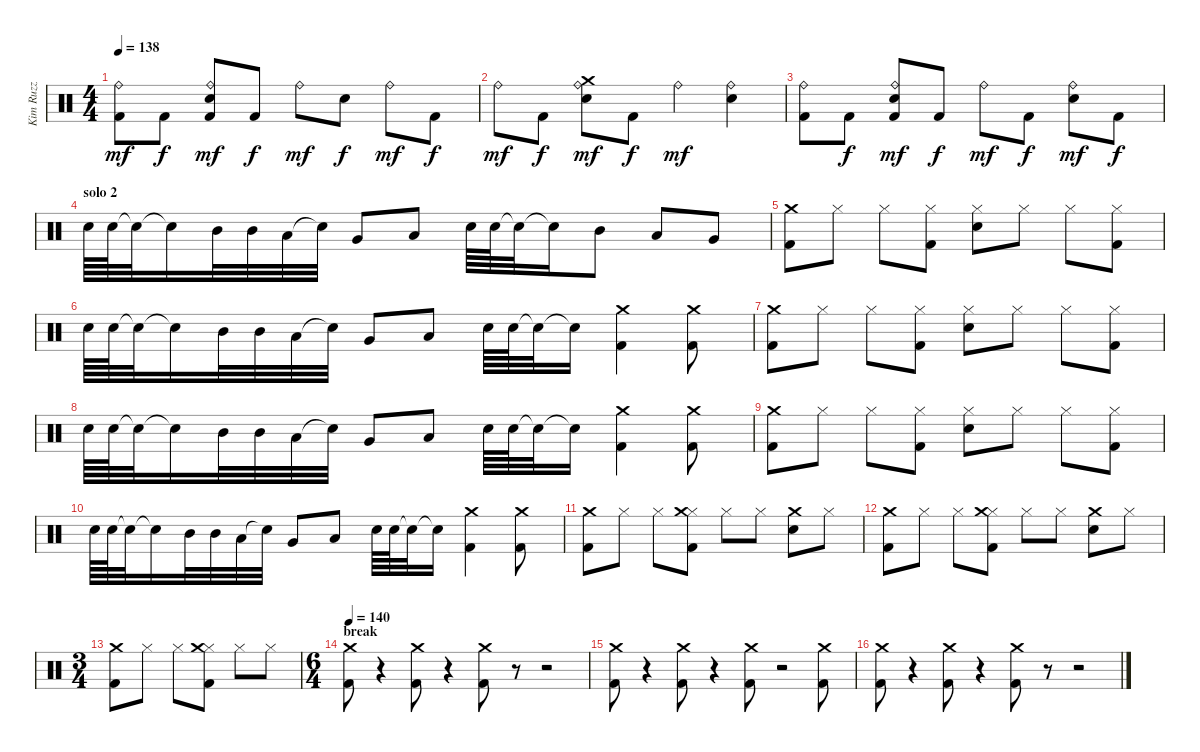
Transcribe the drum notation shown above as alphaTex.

\track ("Kim Ruzz" "Kim Ruzz") {instrument percussion}
\staff {score}
\articulation defaults
\ts (4 4)
\tempo 138
\clef neutral
\ks c
("Kick (hit) 2" "Ride (bell)").8{dy mf} "Kick (hit) 2".8{dy f} ("Kick (hit) 2" "Ride (bell)" "Snare (hit) 2").8{dy mf} "Kick (hit) 2".8{dy f} "Ride (bell)".8{dy mf} "Snare (hit) 2".8{dy f} "Ride (bell)".8{dy mf} "Kick (hit) 2".8{dy f} |
"Ride (bell)".8{dy mf} "Kick (hit) 2".8{dy f} ("Ride (bell)" "Crash medium (hit)" "Snare (hit) 2").8{dy mf} "Kick (hit) 2".8{dy f} "Ride (bell)".4{dy mf} ("Ride (bell)" "Snare (hit) 2").4 |
("Kick (hit) 2" "Ride (bell)").8 "Kick (hit) 2".8{dy f} ("Kick (hit) 2" "Ride (bell)" "Snare (hit) 2").8{dy mf} "Kick (hit) 2".8{dy f} "Ride (bell)".8{dy mf} "Kick (hit) 2".8{dy f} ("Ride (bell)" "Snare (hit) 2").8{dy mf} "Kick (hit) 2".8{dy f} |
\section ("" "solo 2")
"Snare (hit) 2".64 "Snare (hit) 2".64 "Snare (hit)"{t}.32 "Snare (hit)"{t}.16 "Mid Tom (hit)".32 "Mid Tom (hit)".32 "Low Tom (hit)".32 "Snare (hit)"{t}.32 "Very Low Tom (hit)".8 "Low Floor Tom (hit)".8 "Snare (hit) 2".64 "Snare (hit) 2".64 "Snare (hit)"{t}.32 "Snare (hit)"{t}.16 "Mid Tom (hit)".8 "Low Tom (hit)".8 "Very Low Tom (hit)".8 |
("Kick (hit) 2" "Crash medium (hit)").8 "Hi-Hat (closed)".8 "Hi-Hat (closed)".8 ("Kick (hit) 2" "Hi-Hat (closed)").8 ("Hi-Hat (closed)" "Snare (hit) 2").8 "Hi-Hat (closed)".8 "Hi-Hat (closed)".8 ("Kick (hit) 2" "Hi-Hat (closed)").8 |
"Snare (hit) 2".64 "Snare (hit) 2".64 "Snare (hit)"{t}.32 "Snare (hit)"{t}.16 "Mid Tom (hit)".32 "Mid Tom (hit)".32 "Low Tom (hit)".32 "Snare (hit)"{t}.32 "Very Low Tom (hit)".8 "Low Floor Tom (hit)".8 "Snare (hit) 2".64 "Snare (hit) 2".64 "Snare (hit)"{t}.32 "Snare (hit)"{t}.16 ("Kick (hit) 2" "Crash medium (hit)").4 ("Kick (hit) 2" "Crash medium (hit)").8 |
("Kick (hit) 2" "Crash medium (hit)").8 "Hi-Hat (closed)".8 "Hi-Hat (closed)".8 ("Kick (hit) 2" "Hi-Hat (closed)").8 ("Hi-Hat (closed)" "Snare (hit) 2").8 "Hi-Hat (closed)".8 "Hi-Hat (closed)".8 ("Kick (hit) 2" "Hi-Hat (closed)").8 |
"Snare (hit) 2".64 "Snare (hit) 2".64 "Snare (hit)"{t}.32 "Snare (hit)"{t}.16 "Mid Tom (hit)".32 "Mid Tom (hit)".32 "Low Tom (hit)".32 "Snare (hit)"{t}.32 "Very Low Tom (hit)".8 "Low Floor Tom (hit)".8 "Snare (hit) 2".64 "Snare (hit) 2".64 "Snare (hit)"{t}.32 "Snare (hit)"{t}.16 ("Kick (hit) 2" "Crash medium (hit)").4 ("Kick (hit) 2" "Crash medium (hit)").8 |
("Kick (hit) 2" "Crash medium (hit)").8 "Hi-Hat (closed)".8 "Hi-Hat (closed)".8 ("Kick (hit) 2" "Hi-Hat (closed)").8 ("Hi-Hat (closed)" "Snare (hit) 2").8 "Hi-Hat (closed)".8 "Hi-Hat (closed)".8 ("Kick (hit) 2" "Hi-Hat (closed)").8 |
"Snare (hit) 2".64 "Snare (hit) 2".64 "Snare (hit)"{t}.32 "Snare (hit)"{t}.16 "Mid Tom (hit)".32 "Mid Tom (hit)".32 "Low Tom (hit)".32 "Snare (hit)"{t}.32 "Very Low Tom (hit)".8 "Low Floor Tom (hit)".8 "Snare (hit) 2".64 "Snare (hit) 2".64 "Snare (hit)"{t}.32 "Snare (hit)"{t}.16 ("Kick (hit) 2" "Crash medium (hit)").4 ("Kick (hit) 2" "Crash medium (hit)").8 |
("Kick (hit) 2" "Crash medium (hit)").8 "Hi-Hat (closed)".8 "Hi-Hat (closed)".8 ("Kick (hit) 2" "Hi-Hat (closed)" "Crash medium (hit)").8 "Hi-Hat (closed)".8 "Hi-Hat (closed)".8 ("Crash medium (hit)" "Snare (hit) 2").8 "Hi-Hat (closed)".8 |
("Kick (hit) 2" "Crash medium (hit)").8 "Hi-Hat (closed)".8 "Hi-Hat (closed)".8 ("Kick (hit) 2" "Hi-Hat (closed)" "Crash medium (hit)").8 "Hi-Hat (closed)".8 "Hi-Hat (closed)".8 ("Crash medium (hit)" "Snare (hit) 2").8 "Hi-Hat (closed)".8 |
\ts (3 4)
("Kick (hit) 2" "Crash medium (hit)").8 "Hi-Hat (closed)".8 "Hi-Hat (closed)".8 ("Kick (hit) 2" "Hi-Hat (closed)" "Crash medium (hit)").8 "Hi-Hat (closed)".8 "Hi-Hat (closed)".8 |
\ts (6 4)
\section ("" "break")
\tempo 140
("Kick (hit) 2" "Crash medium (hit)").8 r.4 ("Kick (hit) 2" "Crash medium (hit)").8 r.4 ("Kick (hit) 2" "Crash medium (hit)").8 r.8 r.2 |
("Kick (hit) 2" "Crash medium (hit)").8 r.4 ("Kick (hit) 2" "Crash medium (hit)").8 r.4 ("Kick (hit) 2" "Crash medium (hit)").8 r.2 ("Kick (hit) 2" "Crash medium (hit)").8 |
("Kick (hit) 2" "Crash medium (hit)").8 r.4 ("Kick (hit) 2" "Crash medium (hit)").8 r.4 ("Kick (hit) 2" "Crash medium (hit)").8 r.8 r.2
